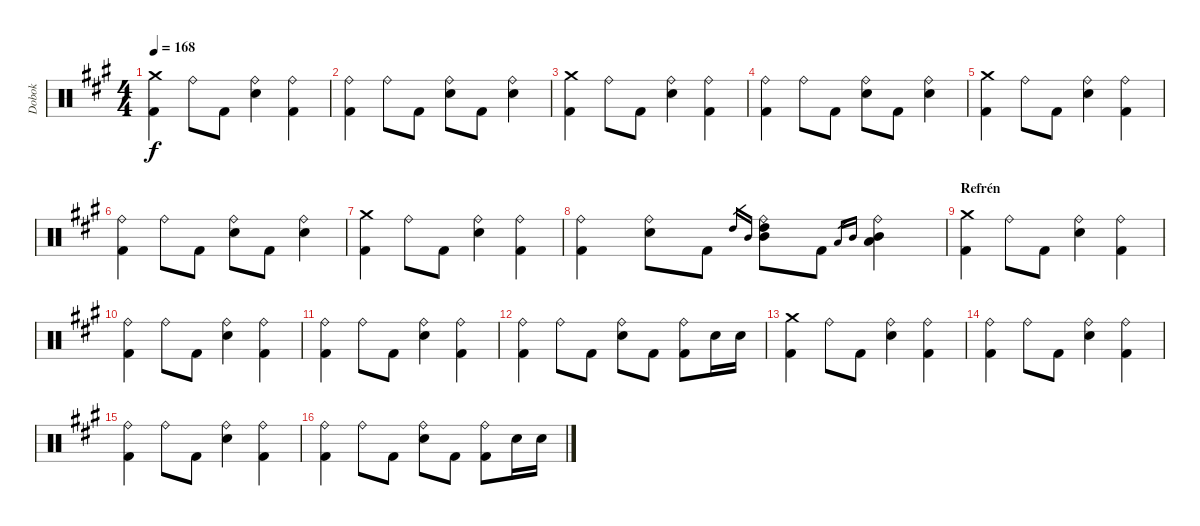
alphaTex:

\track ("Dobok" "Dobok") {instrument percussion}
\staff {score}
\articulation defaults
\ts (4 4)
\tempo 168
\clef neutral
\ks f#minor
("Crash medium (hit)" "Kick (hit) 2").4{dy f} "Ride (bell)".8 "Kick (hit) 2".8 ("Ride (bell)" "Snare (hit) 2").4 ("Ride (bell)" "Kick (hit) 2").4 |
("Ride (bell)" "Kick (hit) 2").4 "Ride (bell)".8 "Kick (hit) 2".8 ("Ride (bell)" "Snare (hit) 2").8 "Kick (hit) 2".8 ("Ride (bell)" "Snare (hit) 2").4 |
("Crash medium (hit)" "Kick (hit) 2").4 "Ride (bell)".8 "Kick (hit) 2".8 ("Ride (bell)" "Snare (hit) 2").4 ("Ride (bell)" "Kick (hit) 2").4 |
("Ride (bell)" "Kick (hit) 2").4 "Ride (bell)".8 "Kick (hit) 2".8 ("Ride (bell)" "Snare (hit) 2").8 "Kick (hit) 2".8 ("Ride (bell)" "Snare (hit) 2").4 |
("Crash medium (hit)" "Kick (hit) 2").4 "Ride (bell)".8 "Kick (hit) 2".8 ("Ride (bell)" "Snare (hit) 2").4 ("Ride (bell)" "Kick (hit) 2").4 |
("Ride (bell)" "Kick (hit) 2").4 "Ride (bell)".8 "Kick (hit) 2".8 ("Ride (bell)" "Snare (hit) 2").8 "Kick (hit) 2".8 ("Ride (bell)" "Snare (hit) 2").4 |
("Crash medium (hit)" "Kick (hit) 2").4 "Ride (bell)".8 "Kick (hit) 2".8 ("Ride (bell)" "Snare (hit) 2").4 ("Ride (bell)" "Kick (hit) 2").4 |
("Ride (bell)" "Kick (hit) 2").4 ("Ride (bell)" "Snare (hit) 2").8 "Kick (hit) 2".8 "High Tom (hit)".16{gr} "Mid Tom (hit)".16{gr} ("Ride (bell)" "High Tom (hit)" "Mid Tom (hit)").8 "Kick (hit) 2".8 "Low Tom (hit)".16{gr} "Mid Tom (hit)".16{gr} ("Ride (bell)" "Low Tom (hit)" "Mid Tom (hit)").4 |
\section ("" "Refrén")
("Crash medium (hit)" "Kick (hit) 2").4 "Ride (bell)".8 "Kick (hit) 2".8 ("Ride (bell)" "Snare (hit) 2").4 ("Ride (bell)" "Kick (hit) 2").4 |
("Ride (bell)" "Kick (hit) 2").4 "Ride (bell)".8 "Kick (hit) 2".8 ("Ride (bell)" "Snare (hit) 2").4 ("Ride (bell)" "Kick (hit) 2").4 |
("Ride (bell)" "Kick (hit) 2").4 "Ride (bell)".8 "Kick (hit) 2".8 ("Ride (bell)" "Snare (hit) 2").4 ("Ride (bell)" "Kick (hit) 2").4 |
("Ride (bell)" "Kick (hit) 2").4 "Ride (bell)".8 "Kick (hit) 2".8 ("Ride (bell)" "Snare (hit) 2").8 "Kick (hit) 2".8 ("Ride (bell)" "Kick (hit) 2").8 "Snare (hit) 2".16 "Snare (hit) 2".16 |
("Crash medium (hit)" "Kick (hit) 2").4 "Ride (bell)".8 "Kick (hit) 2".8 ("Ride (bell)" "Snare (hit) 2").4 ("Ride (bell)" "Kick (hit) 2").4 |
("Ride (bell)" "Kick (hit) 2").4 "Ride (bell)".8 "Kick (hit) 2".8 ("Ride (bell)" "Snare (hit) 2").4 ("Ride (bell)" "Kick (hit) 2").4 |
("Ride (bell)" "Kick (hit) 2").4 "Ride (bell)".8 "Kick (hit) 2".8 ("Ride (bell)" "Snare (hit) 2").4 ("Ride (bell)" "Kick (hit) 2").4 |
("Ride (bell)" "Kick (hit) 2").4 "Ride (bell)".8 "Kick (hit) 2".8 ("Ride (bell)" "Snare (hit) 2").8 "Kick (hit) 2".8 ("Ride (bell)" "Kick (hit) 2").8 "Snare (hit) 2".16 "Snare (hit) 2".16
